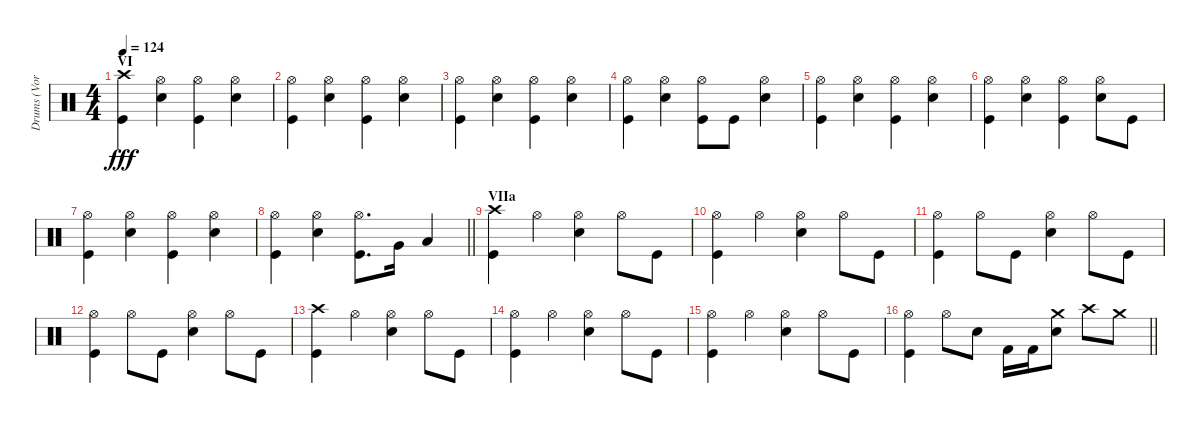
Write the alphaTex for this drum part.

\track ("Drums (Vortex)" "Drums (Vor") {instrument percussion}
\staff {score}
\articulation defaults
\ts (4 4)
\section ("" "VI")
\tempo 124
\clef neutral
\ks c
("Crash high (hit)" "Kick (hit)").4{dy fff} ("Snare (hit) 2" "Hi-Hat (open)").4 ("Kick (hit)" "Hi-Hat (open)").4 ("Snare (hit) 2" "Hi-Hat (open)").4 |
("Kick (hit)" "Hi-Hat (open)").4 ("Snare (hit) 2" "Hi-Hat (open)").4 ("Kick (hit)" "Hi-Hat (open)").4 ("Snare (hit) 2" "Hi-Hat (open)").4 |
("Kick (hit)" "Hi-Hat (open)").4 ("Snare (hit) 2" "Hi-Hat (open)").4 ("Kick (hit)" "Hi-Hat (open)").4 ("Snare (hit) 2" "Hi-Hat (open)").4 |
("Kick (hit)" "Hi-Hat (open)").4 ("Snare (hit) 2" "Hi-Hat (open)").4 ("Kick (hit)" "Hi-Hat (open)").8 "Kick (hit)".8 ("Snare (hit) 2" "Hi-Hat (open)").4 |
("Kick (hit)" "Hi-Hat (open)").4 ("Snare (hit) 2" "Hi-Hat (open)").4 ("Kick (hit)" "Hi-Hat (open)").4 ("Snare (hit) 2" "Hi-Hat (open)").4 |
("Kick (hit)" "Hi-Hat (open)").4 ("Snare (hit) 2" "Hi-Hat (open)").4 ("Kick (hit)" "Hi-Hat (open)").4 ("Snare (hit) 2" "Hi-Hat (open)").8 "Kick (hit)".8 |
("Kick (hit)" "Hi-Hat (open)").4 ("Snare (hit) 2" "Hi-Hat (open)").4 ("Kick (hit)" "Hi-Hat (open)").4 ("Snare (hit) 2" "Hi-Hat (open)").4 |
\barLineRight lightlight
("Kick (hit)" "Hi-Hat (open)").4 ("Snare (hit) 2" "Hi-Hat (open)").4 ("Kick (hit)" "Hi-Hat (open)").8{d} "Very Low Tom (hit)".16 "Low Floor Tom (hit)".4 |
\section ("" "VIIa")
("Crash high (hit)" "Kick (hit)").4 "Hi-Hat (open)".4 ("Hi-Hat (open)" "Snare (hit) 2").4 "Hi-Hat (open)".8 "Kick (hit)".8 |
("Kick (hit)" "Hi-Hat (open)").4 "Hi-Hat (open)".4 ("Hi-Hat (open)" "Snare (hit) 2").4 "Hi-Hat (open)".8 "Kick (hit)".8 |
("Kick (hit)" "Hi-Hat (open)").4 "Hi-Hat (open)".8 "Kick (hit)".8 ("Hi-Hat (open)" "Snare (hit) 2").4 "Hi-Hat (open)".8 "Kick (hit)".8 |
("Kick (hit)" "Hi-Hat (open)").4 "Hi-Hat (open)".8 "Kick (hit)".8 ("Hi-Hat (open)" "Snare (hit) 2").4 "Hi-Hat (open)".8 "Kick (hit)".8 |
("Crash high (hit)" "Kick (hit)").4 "Hi-Hat (open)".4 ("Hi-Hat (open)" "Snare (hit) 2").4 "Hi-Hat (open)".8 "Kick (hit)".8 |
("Kick (hit)" "Hi-Hat (open)").4 "Hi-Hat (open)".4 ("Hi-Hat (open)" "Snare (hit) 2").4 "Hi-Hat (open)".8 "Kick (hit)".8 |
("Kick (hit)" "Hi-Hat (open)").4 "Hi-Hat (open)".4 ("Hi-Hat (open)" "Snare (hit) 2").4 "Hi-Hat (open)".8 "Kick (hit)".8 |
\barLineRight lightlight
("Kick (hit)" "Hi-Hat (open)").4 "Hi-Hat (open)".8 "Snare (hit) 2".8 "Kick (hit) 2".16 "Kick (hit) 2".16 ("Crash medium (hit)" "Snare (hit) 2").8 "Crash high (hit)".8 "Crash medium (hit)".8
